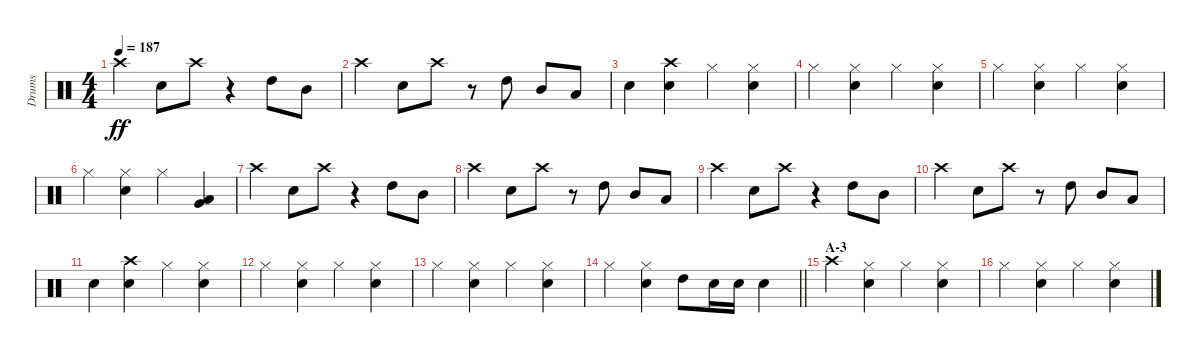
\track ("Drums" "Drums") {instrument percussion}
\staff {score}
\articulation defaults
\ts (4 4)
\tempo 187
\clef neutral
\ks c "Crash high (hit)".4{dy ff} "Snare (hit) 2".8 "Crash high (hit)".8
r.4 "High Tom (hit)".8 "Mid Tom (hit)".8 |
"Crash high (hit)".4 "Snare (hit) 2".8 "Crash high (hit)".8 r.8 "High Tom (hit)".8 "Mid Tom (hit)".8 "Low Tom (hit)".8 |
"Snare (hit) 2".4 ("Snare (hit) 2" "Crash high (hit)").4 "Hi-Hat (closed)".4 ("Hi-Hat (closed)" "Snare (hit) 2").4 |
"Hi-Hat (closed)".4 ("Snare (hit) 2" "Hi-Hat (closed)").4 "Hi-Hat (closed)".4 ("Hi-Hat (closed)" "Snare (hit) 2").4 |
"Hi-Hat (closed)".4 ("Snare (hit) 2" "Hi-Hat (closed)").4 "Hi-Hat (closed)".4 ("Hi-Hat (closed)" "Snare (hit) 2").4 |
"Hi-Hat (closed)".4 ("Snare (hit) 2" "Hi-Hat (closed)").4 "Hi-Hat (closed)".4 ("Low Tom (hit)" "Very Low Tom (hit)").4 |
"Crash high (hit)".4 "Snare (hit) 2".8 "Crash high (hit)".8 r.4 "High Tom (hit)".8 "Mid Tom (hit)".8 |
"Crash high (hit)".4 "Snare (hit) 2".8 "Crash high (hit)".8 r.8 "High Tom (hit)".8 "Mid Tom (hit)".8 "Low Tom (hit)".8 |
"Crash high (hit)".4 "Snare (hit) 2".8 "Crash high (hit)".8 r.4 "High Tom (hit)".8 "Mid Tom (hit)".8 |
"Crash high (hit)".4 "Snare (hit) 2".8 "Crash high (hit)".8 r.8 "High Tom (hit)".8 "Mid Tom (hit)".8 "Low Tom (hit)".8 |
"Snare (hit) 2".4 ("Snare (hit) 2" "Crash high (hit)").4 "Hi-Hat (closed)".4 ("Hi-Hat (closed)" "Snare (hit) 2").4 |
"Hi-Hat (closed)".4 ("Snare (hit) 2" "Hi-Hat (closed)").4 "Hi-Hat (closed)".4 ("Hi-Hat (closed)" "Snare (hit) 2").4 |
"Hi-Hat (closed)".4 ("Snare (hit) 2" "Hi-Hat (closed)").4 "Hi-Hat (closed)".4 ("Hi-Hat (closed)" "Snare (hit) 2").4 |
\barLineRight lightlight "Hi-Hat (closed)".4
("Hi-Hat (closed)" "Snare (hit) 2").4 "High Tom (hit)".8 "Snare (hit) 2".16 "Snare (hit) 2".16 "Snare (hit) 2".4 |
\section ("" "A-3")
"Crash high (hit)".4 ("Hi-Hat (closed)" "Snare (hit) 2").4 "Hi-Hat (closed)".4 ("Hi-Hat (closed)" "Snare (hit) 2").4 |
"Hi-Hat (closed)".4 ("Hi-Hat (closed)" "Snare (hit) 2").4 "Hi-Hat (closed)".4 ("Hi-Hat (closed)" "Snare (hit) 2").4
